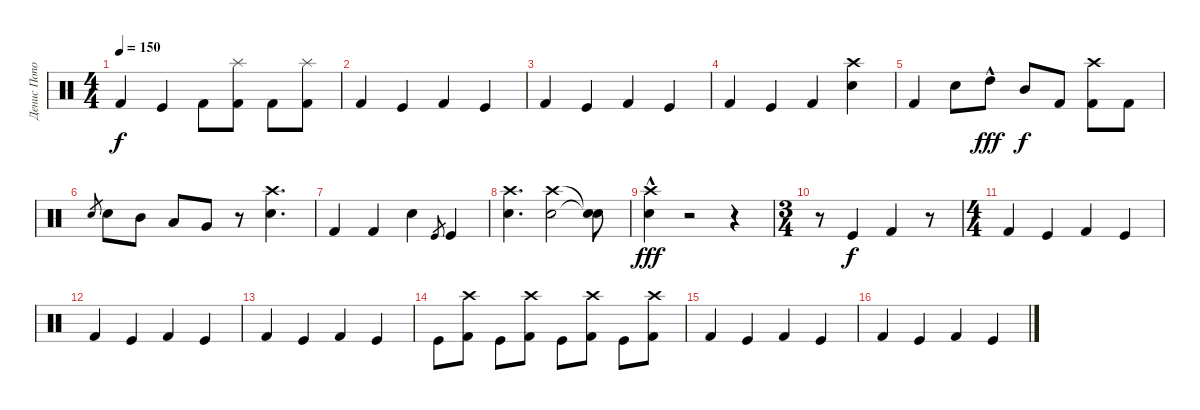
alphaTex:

\track ("Денис Попов" "Денис Попо") {instrument percussion}
\staff
\articulation defaults
\ts (4 4)
\tempo 150
\clef neutral
\ks c "Kick (hit) 2".4{dy f} "Kick (hit)".4 "Kick (hit) 2".8
("Splash (hit)" "Kick (hit) 2").8 "Kick (hit) 2".8 ("Splash (hit)" "Kick (hit) 2").8 |
"Kick (hit) 2".4 "Kick (hit)".4 "Kick (hit) 2".4 "Kick (hit)".4 |
"Kick (hit) 2".4 "Kick (hit)".4 "Kick (hit) 2".4 "Kick (hit)".4 |
"Kick (hit) 2".4 "Kick (hit)".4 "Kick (hit) 2".4 ("Crash high (hit)" "Snare (hit) 2").4 |
"Kick (hit) 2".4 "Snare (hit) 2".8 "High Tom (hit)"{hac}.8{dy fff} "Mid Tom (hit)".8{dy f} "Kick (hit) 2".8 ("Crash high (hit)" "Kick (hit) 2").8 "Kick (hit) 2".8 |
"Electric Snare (hit)".8{gr} "Electric Snare (hit)".8 "Mid Tom (hit)".8 "Low Tom (hit)".8 "Very Low Tom (hit)".8 r.8 ("Crash high (hit)" "Snare (hit) 2").4{d} |
"Kick (hit) 2".4 "Kick (hit) 2".4 "Snare (hit) 2".4 "Kick (hit)".8{gr} "Kick (hit)".4 |
("Crash high (hit)" "Electric Snare (hit)").4{d} ("Crash high (hit)" "Snare (hit) 2").2 ("Snare (hit)"{t} "Snare (hit)"{t}).8 |
("Crash high (hit)"{hac} "Electric Snare (hit)").4{dy fff} r.2 r.4 |
\ts (3 4)
r.8 "Kick (hit)".4{dy f} "Kick (hit) 2".4 r.8 |
\ts (4 4)
"Kick (hit) 2".4 "Kick (hit)".4 "Kick (hit) 2".4 "Kick (hit)".4 |
"Kick (hit) 2".4 "Kick (hit)".4 "Kick (hit) 2".4 "Kick (hit)".4 |
"Kick (hit) 2".4 "Kick (hit)".4 "Kick (hit) 2".4 "Kick (hit)".4 |
"Kick (hit)".8 ("Crash high (hit)" "Kick (hit) 2").8 "Kick (hit)".8 ("Crash high (hit)" "Kick (hit) 2").8 "Kick (hit)".8 ("Crash high (hit)" "Kick (hit) 2").8 "Kick (hit)".8 ("Crash high (hit)" "Kick (hit) 2").8 |
"Kick (hit) 2".4 "Kick (hit)".4 "Kick (hit) 2".4 "Kick (hit)".4 |
"Kick (hit) 2".4 "Kick (hit)".4 "Kick (hit) 2".4 "Kick (hit)".4
